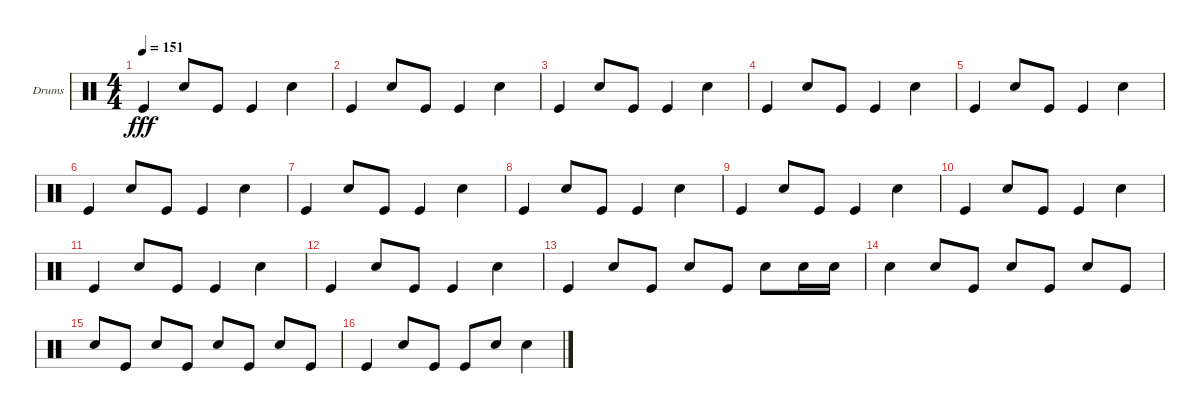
\defaultSystemsLayout 4
\bracketExtendMode groupsimilarinstruments
\firstSystemTrackNameOrientation horizontal
\otherSystemsTrackNameOrientation horizontal
\track ("Helders" "Drums") {instrument percussion}
\staff {score}
\articulation defaults
\ts (4 4)
\tempo 151
\clef neutral
\ks c "Kick (hit)".4{dy fff} "Snare (hit) 2".8 "Kick (hit)".8 "Kick (hit)".4 "Snare (hit) 2".4
|
"Kick (hit)".4 "Snare (hit) 2".8 "Kick (hit)".8 "Kick (hit)".4 "Snare (hit) 2".4 |
"Kick (hit)".4 "Snare (hit) 2".8 "Kick (hit)".8 "Kick (hit)".4 "Snare (hit) 2".4 |
"Kick (hit)".4 "Snare (hit) 2".8 "Kick (hit)".8 "Kick (hit)".4 "Snare (hit) 2".4 |
"Kick (hit)".4 "Snare (hit) 2".8 "Kick (hit)".8 "Kick (hit)".4 "Snare (hit) 2".4 |
"Kick (hit)".4 "Snare (hit) 2".8 "Kick (hit)".8 "Kick (hit)".4 "Snare (hit) 2".4 |
"Kick (hit)".4 "Snare (hit) 2".8 "Kick (hit)".8 "Kick (hit)".4 "Snare (hit) 2".4 |
"Kick (hit)".4 "Snare (hit) 2".8 "Kick (hit)".8 "Kick (hit)".4 "Snare (hit) 2".4 |
"Kick (hit)".4 "Snare (hit) 2".8 "Kick (hit)".8 "Kick (hit)".4 "Snare (hit) 2".4 |
"Kick (hit)".4 "Snare (hit) 2".8 "Kick (hit)".8 "Kick (hit)".4 "Snare (hit) 2".4 |
"Kick (hit)".4 "Snare (hit) 2".8 "Kick (hit)".8 "Kick (hit)".4 "Snare (hit) 2".4 |
"Kick (hit)".4 "Snare (hit) 2".8 "Kick (hit)".8 "Kick (hit)".4 "Snare (hit) 2".4 |
"Kick (hit)".4 "Snare (hit) 2".8 "Kick (hit)".8 "Snare (hit) 2".8 "Kick (hit)".8 "Snare (hit) 2".8 "Snare (hit) 2".16 "Snare (hit) 2".16 |
"Snare (hit) 2".4 "Snare (hit) 2".8 "Kick (hit)".8 "Snare (hit) 2".8 "Kick (hit)".8 "Snare (hit) 2".8 "Kick (hit)".8 |
"Snare (hit) 2".8 "Kick (hit)".8 "Snare (hit) 2".8 "Kick (hit)".8 "Snare (hit) 2".8 "Kick (hit)".8 "Snare (hit) 2".8 "Kick (hit)".8 |
"Kick (hit)".4 "Snare (hit) 2".8 "Kick (hit)".8 "Kick (hit)".8 "Snare (hit) 2".8 "Snare (hit) 2".4
